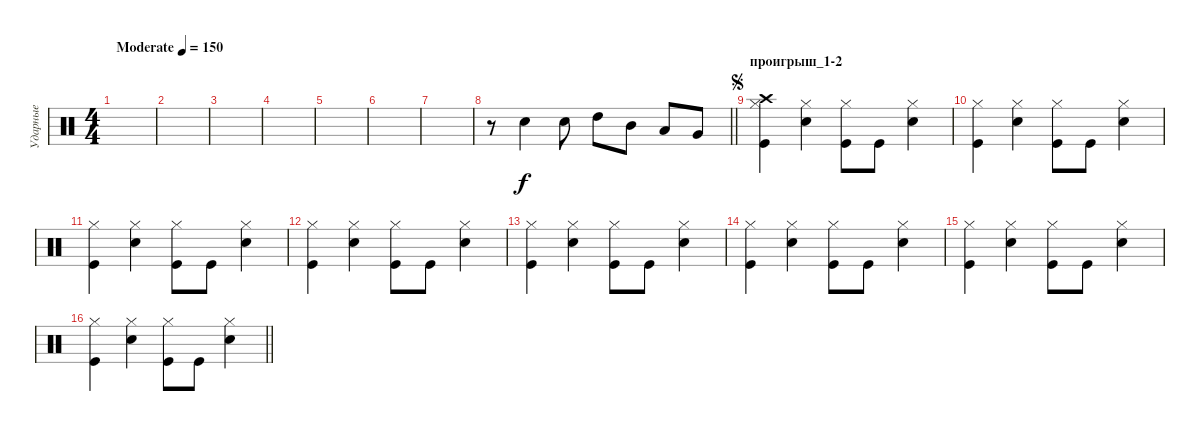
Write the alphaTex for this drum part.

\track ("Ударные" "Ударные") {instrument percussion}
\staff {score}
\articulation defaults
\ts (4 4)
\tempo (150 "Moderate")
\clef neutral
\ks c
|
|
|
|
|
|
|
\barLineRight lightlight
r.8 "Snare (hit) 2".4 "Snare (hit) 2".8 "High Tom (hit)".8 "Mid Tom (hit)".8 "Low Tom (hit)".8 "Very Low Tom (hit)".8 |
\section ("" "проигрыш_1-2")
\jump segno
("Kick (hit)" "Hi-Hat (closed)" "Crash high (hit)").4 ("Snare (hit) 2" "Hi-Hat (closed)").4 ("Kick (hit)" "Hi-Hat (closed)").8 "Kick (hit)".8 ("Snare (hit) 2" "Hi-Hat (closed)").4 |
("Kick (hit)" "Hi-Hat (closed)").4 ("Snare (hit) 2" "Hi-Hat (closed)").4 ("Kick (hit)" "Hi-Hat (closed)").8 "Kick (hit)".8 ("Snare (hit) 2" "Hi-Hat (closed)").4 |
("Kick (hit)" "Hi-Hat (closed)").4 ("Snare (hit) 2" "Hi-Hat (closed)").4 ("Kick (hit)" "Hi-Hat (closed)").8 "Kick (hit)".8 ("Snare (hit) 2" "Hi-Hat (closed)").4 |
("Kick (hit)" "Hi-Hat (closed)").4 ("Snare (hit) 2" "Hi-Hat (closed)").4 ("Kick (hit)" "Hi-Hat (closed)").8 "Kick (hit)".8 ("Snare (hit) 2" "Hi-Hat (closed)").4 |
("Kick (hit)" "Hi-Hat (closed)").4 ("Snare (hit) 2" "Hi-Hat (closed)").4 ("Kick (hit)" "Hi-Hat (closed)").8 "Kick (hit)".8 ("Snare (hit) 2" "Hi-Hat (closed)").4 |
("Kick (hit)" "Hi-Hat (closed)").4 ("Snare (hit) 2" "Hi-Hat (closed)").4 ("Kick (hit)" "Hi-Hat (closed)").8 "Kick (hit)".8 ("Snare (hit) 2" "Hi-Hat (closed)").4 |
("Kick (hit)" "Hi-Hat (closed)").4 ("Snare (hit) 2" "Hi-Hat (closed)").4 ("Kick (hit)" "Hi-Hat (closed)").8 "Kick (hit)".8 ("Snare (hit) 2" "Hi-Hat (closed)").4 |
\barLineRight lightlight
("Kick (hit)" "Hi-Hat (closed)").4 ("Snare (hit) 2" "Hi-Hat (closed)").4 ("Kick (hit)" "Hi-Hat (closed)").8 "Kick (hit)".8 ("Snare (hit) 2" "Hi-Hat (closed)").4
